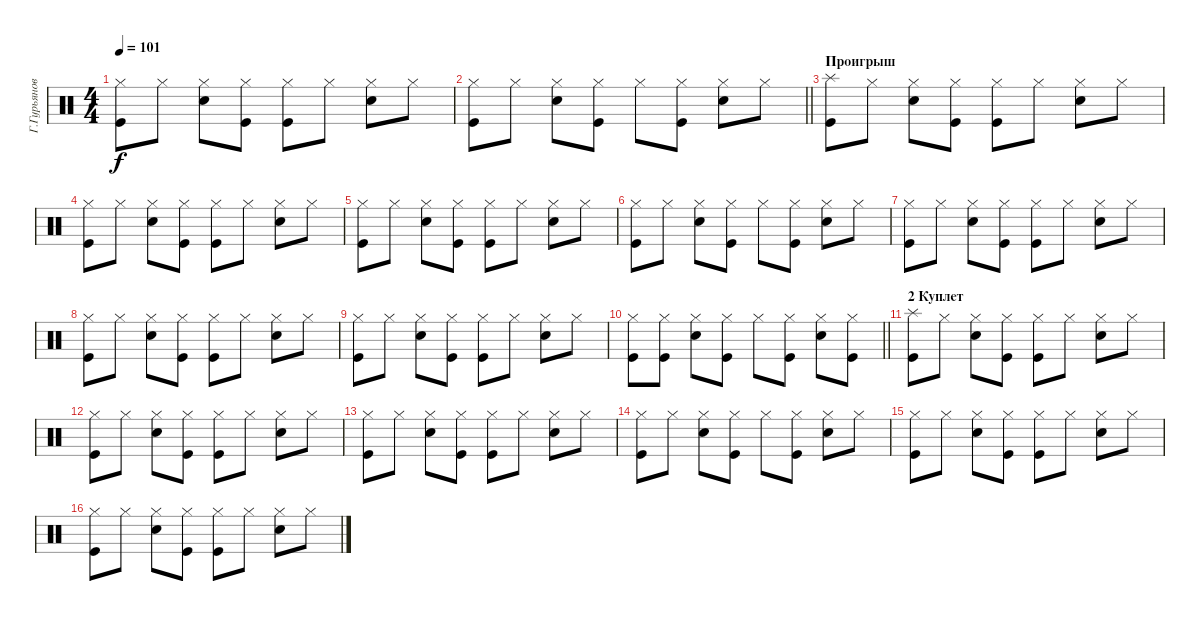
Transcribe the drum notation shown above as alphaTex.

\track ("Г.Гурьянов" "Г.Гурьянов") {instrument percussion}
\staff {score}
\articulation defaults
\ts (4 4)
\tempo 101
\clef neutral
\ks c
("Hi-Hat (closed)" "Kick (hit)").8{dy f} "Hi-Hat (closed)".8 ("Hi-Hat (closed)" "Snare (hit) 2").8 ("Hi-Hat (closed)" "Kick (hit)").8 ("Hi-Hat (closed)" "Kick (hit)").8 "Hi-Hat (closed)".8 ("Hi-Hat (closed)" "Snare (hit) 2").8 "Hi-Hat (closed)".8 |
\barLineRight lightlight
("Hi-Hat (closed)" "Kick (hit)").8 "Hi-Hat (closed)".8 ("Hi-Hat (closed)" "Snare (hit) 2").8 ("Hi-Hat (closed)" "Kick (hit)").8 "Hi-Hat (closed)".8 ("Hi-Hat (closed)" "Kick (hit)").8 ("Hi-Hat (closed)" "Snare (hit) 2").8 "Hi-Hat (closed)".8 |
\section ("" "Проигрыш")
("Splash (hit)" "Kick (hit)").8 "Hi-Hat (closed)".8 ("Hi-Hat (closed)" "Snare (hit) 2").8 ("Hi-Hat (closed)" "Kick (hit)").8 ("Hi-Hat (closed)" "Kick (hit)").8 "Hi-Hat (closed)".8 ("Hi-Hat (closed)" "Snare (hit) 2").8 "Hi-Hat (closed)".8 |
("Hi-Hat (closed)" "Kick (hit)").8 "Hi-Hat (closed)".8 ("Hi-Hat (closed)" "Snare (hit) 2").8 ("Hi-Hat (closed)" "Kick (hit)").8 ("Hi-Hat (closed)" "Kick (hit)").8 "Hi-Hat (closed)".8 ("Hi-Hat (closed)" "Snare (hit) 2").8 "Hi-Hat (closed)".8 |
("Hi-Hat (closed)" "Kick (hit)").8 "Hi-Hat (closed)".8 ("Hi-Hat (closed)" "Snare (hit) 2").8 ("Hi-Hat (closed)" "Kick (hit)").8 ("Hi-Hat (closed)" "Kick (hit)").8 "Hi-Hat (closed)".8 ("Hi-Hat (closed)" "Snare (hit) 2").8 "Hi-Hat (closed)".8 |
("Hi-Hat (closed)" "Kick (hit)").8 "Hi-Hat (closed)".8 ("Hi-Hat (closed)" "Snare (hit) 2").8 ("Hi-Hat (closed)" "Kick (hit)").8 "Hi-Hat (closed)".8 ("Hi-Hat (closed)" "Kick (hit)").8 ("Hi-Hat (closed)" "Snare (hit) 2").8 "Hi-Hat (closed)".8 |
("Hi-Hat (closed)" "Kick (hit)").8 "Hi-Hat (closed)".8 ("Hi-Hat (closed)" "Snare (hit) 2").8 ("Hi-Hat (closed)" "Kick (hit)").8 ("Hi-Hat (closed)" "Kick (hit)").8 "Hi-Hat (closed)".8 ("Hi-Hat (closed)" "Snare (hit) 2").8 "Hi-Hat (closed)".8 |
("Hi-Hat (closed)" "Kick (hit)").8 "Hi-Hat (closed)".8 ("Hi-Hat (closed)" "Snare (hit) 2").8 ("Hi-Hat (closed)" "Kick (hit)").8 ("Hi-Hat (closed)" "Kick (hit)").8 "Hi-Hat (closed)".8 ("Hi-Hat (closed)" "Snare (hit) 2").8 "Hi-Hat (closed)".8 |
("Hi-Hat (closed)" "Kick (hit)").8 "Hi-Hat (closed)".8 ("Hi-Hat (closed)" "Snare (hit) 2").8 ("Hi-Hat (closed)" "Kick (hit)").8 ("Hi-Hat (closed)" "Kick (hit)").8 "Hi-Hat (closed)".8 ("Hi-Hat (closed)" "Snare (hit) 2").8 "Hi-Hat (closed)".8 |
\barLineRight lightlight
("Hi-Hat (closed)" "Kick (hit)").8 ("Hi-Hat (closed)" "Kick (hit)").8 ("Hi-Hat (closed)" "Snare (hit) 2").8 ("Hi-Hat (closed)" "Kick (hit)").8 "Hi-Hat (closed)".8 ("Hi-Hat (closed)" "Kick (hit)").8 ("Hi-Hat (closed)" "Snare (hit) 2").8 ("Hi-Hat (closed)" "Kick (hit)").8 |
\section ("" "2 Куплет")
("Splash (hit)" "Kick (hit)").8 "Hi-Hat (closed)".8 ("Hi-Hat (closed)" "Snare (hit) 2").8 ("Hi-Hat (closed)" "Kick (hit)").8 ("Hi-Hat (closed)" "Kick (hit)").8 "Hi-Hat (closed)".8 ("Hi-Hat (closed)" "Snare (hit) 2").8 "Hi-Hat (closed)".8 |
("Hi-Hat (closed)" "Kick (hit)").8 "Hi-Hat (closed)".8 ("Hi-Hat (closed)" "Snare (hit) 2").8 ("Hi-Hat (closed)" "Kick (hit)").8 ("Hi-Hat (closed)" "Kick (hit)").8 "Hi-Hat (closed)".8 ("Hi-Hat (closed)" "Snare (hit) 2").8 "Hi-Hat (closed)".8 |
("Hi-Hat (closed)" "Kick (hit)").8 "Hi-Hat (closed)".8 ("Hi-Hat (closed)" "Snare (hit) 2").8 ("Hi-Hat (closed)" "Kick (hit)").8 ("Hi-Hat (closed)" "Kick (hit)").8 "Hi-Hat (closed)".8 ("Hi-Hat (closed)" "Snare (hit) 2").8 "Hi-Hat (closed)".8 |
("Hi-Hat (closed)" "Kick (hit)").8 "Hi-Hat (closed)".8 ("Hi-Hat (closed)" "Snare (hit) 2").8 ("Hi-Hat (closed)" "Kick (hit)").8 "Hi-Hat (closed)".8 ("Hi-Hat (closed)" "Kick (hit)").8 ("Hi-Hat (closed)" "Snare (hit) 2").8 "Hi-Hat (closed)".8 |
("Hi-Hat (closed)" "Kick (hit)").8 "Hi-Hat (closed)".8 ("Hi-Hat (closed)" "Snare (hit) 2").8 ("Hi-Hat (closed)" "Kick (hit)").8 ("Hi-Hat (closed)" "Kick (hit)").8 "Hi-Hat (closed)".8 ("Hi-Hat (closed)" "Snare (hit) 2").8 "Hi-Hat (closed)".8 |
("Hi-Hat (closed)" "Kick (hit)").8 "Hi-Hat (closed)".8 ("Hi-Hat (closed)" "Snare (hit) 2").8 ("Hi-Hat (closed)" "Kick (hit)").8 ("Hi-Hat (closed)" "Kick (hit)").8 "Hi-Hat (closed)".8 ("Hi-Hat (closed)" "Snare (hit) 2").8 "Hi-Hat (closed)".8
